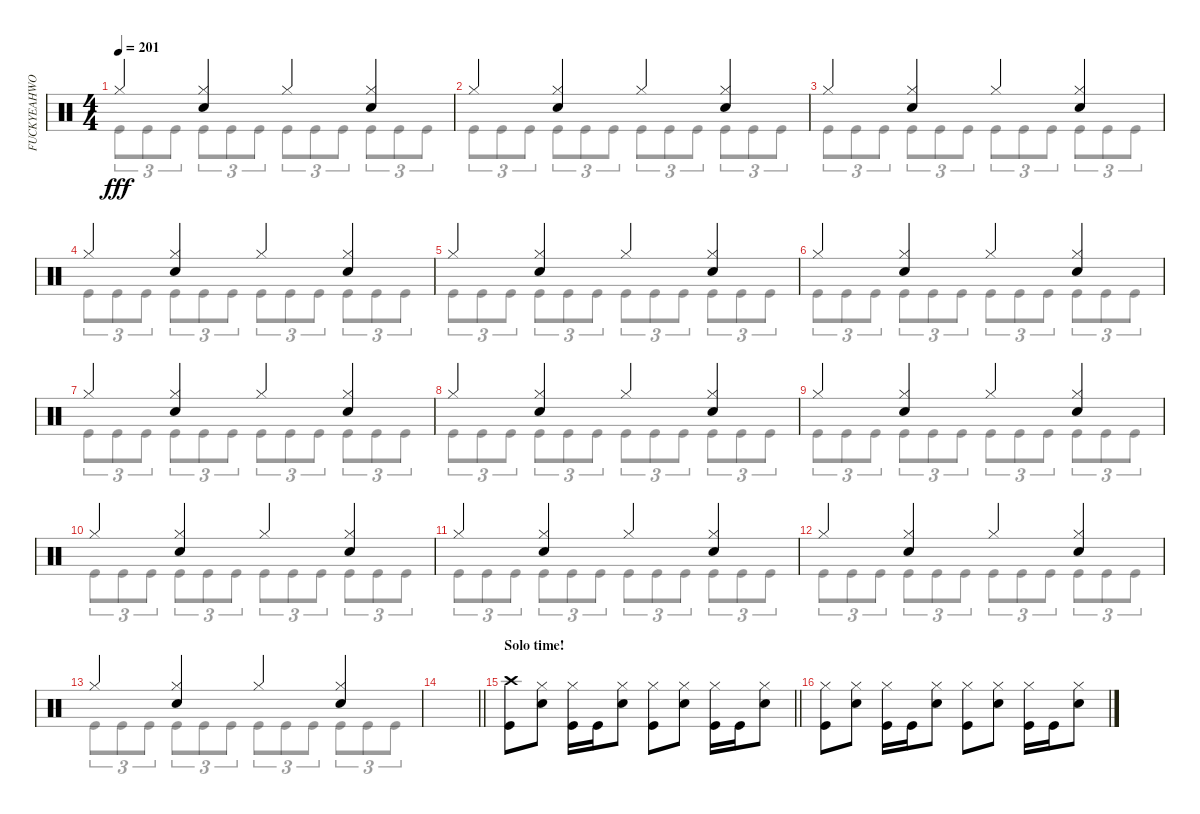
\track ("FUCKYEAHWOOTDAVEMACKINTOSH(Percussion)" "FUCKYEAHWO") {instrument percussion}
\staff {score}
\articulation defaults
\voice
\ts (4 4)
\tempo 201
\clef neutral
\ks c "Hi-Hat (closed)".4{dy fff}
("Hi-Hat (closed)" "Snare (hit) 2").4 "Hi-Hat (closed)".4 ("Hi-Hat (closed)" "Snare (hit) 2").4 |
"Hi-Hat (closed)".4 ("Hi-Hat (closed)" "Snare (hit) 2").4 "Hi-Hat (closed)".4 ("Hi-Hat (closed)" "Snare (hit) 2").4 |
"Hi-Hat (closed)".4 ("Hi-Hat (closed)" "Snare (hit) 2").4 "Hi-Hat (closed)".4 ("Hi-Hat (closed)" "Snare (hit) 2").4 |
"Hi-Hat (closed)".4 ("Hi-Hat (closed)" "Snare (hit) 2").4 "Hi-Hat (closed)".4 ("Hi-Hat (closed)" "Snare (hit) 2").4 |
"Hi-Hat (closed)".4 ("Hi-Hat (closed)" "Snare (hit) 2").4 "Hi-Hat (closed)".4 ("Hi-Hat (closed)" "Snare (hit) 2").4 |
"Hi-Hat (closed)".4 ("Hi-Hat (closed)" "Snare (hit) 2").4 "Hi-Hat (closed)".4 ("Hi-Hat (closed)" "Snare (hit) 2").4 |
"Hi-Hat (closed)".4 ("Hi-Hat (closed)" "Snare (hit) 2").4 "Hi-Hat (closed)".4 ("Hi-Hat (closed)" "Snare (hit) 2").4 |
"Hi-Hat (closed)".4 ("Hi-Hat (closed)" "Snare (hit) 2").4 "Hi-Hat (closed)".4 ("Hi-Hat (closed)" "Snare (hit) 2").4 |
"Hi-Hat (closed)".4 ("Hi-Hat (closed)" "Snare (hit) 2").4 "Hi-Hat (closed)".4 ("Hi-Hat (closed)" "Snare (hit) 2").4 |
"Hi-Hat (closed)".4 ("Hi-Hat (closed)" "Snare (hit) 2").4 "Hi-Hat (closed)".4 ("Hi-Hat (closed)" "Snare (hit) 2").4 |
"Hi-Hat (closed)".4 ("Hi-Hat (closed)" "Snare (hit) 2").4 "Hi-Hat (closed)".4 ("Hi-Hat (closed)" "Snare (hit) 2").4 |
"Hi-Hat (closed)".4 ("Hi-Hat (closed)" "Snare (hit) 2").4 "Hi-Hat (closed)".4 ("Hi-Hat (closed)" "Snare (hit) 2").4 |
"Hi-Hat (closed)".4 ("Hi-Hat (closed)" "Snare (hit) 2").4 "Hi-Hat (closed)".4 ("Hi-Hat (closed)" "Snare (hit) 2").4 |
\barLineRight lightlight
|
\section ("" "Solo time!")
\barLineRight lightlight
("Kick (hit)" "Crash high (hit)").8 ("Snare (hit) 2" "Hi-Hat (closed)").8 ("Kick (hit)" "Hi-Hat (closed)").16 "Kick (hit)".16 ("Snare (hit) 2" "Hi-Hat (closed)").8 ("Kick (hit)" "Hi-Hat (closed)").8 ("Snare (hit) 2" "Hi-Hat (closed)").8 ("Kick (hit)" "Hi-Hat (closed)").16 "Kick (hit)".16 ("Snare (hit) 2" "Hi-Hat (closed)").8 |
("Kick (hit)" "Hi-Hat (closed)").8 ("Snare (hit) 2" "Hi-Hat (closed)").8 ("Kick (hit)" "Hi-Hat (closed)").16 "Kick (hit)".16 ("Snare (hit) 2" "Hi-Hat (closed)").8 ("Kick (hit)" "Hi-Hat (closed)").8 ("Snare (hit) 2" "Hi-Hat (closed)").8 ("Kick (hit)" "Hi-Hat (closed)").16 "Kick (hit)".16 ("Snare (hit) 2" "Hi-Hat (closed)").8
\voice
\clef neutral
\ottava regular
\simile none
\ks c "Kick (hit)".8{tu (3 2) dy fff} "Kick (hit)".8{tu (3 2)} "Kick (hit)".8{tu (3 2)} "Kick (hit)".8{tu (3 2)} "Kick (hit)".8{tu (3 2)} "Kick (hit)".8{tu (3 2)} "Kick (hit)".8{tu (3 2)} "Kick (hit)".8{tu (3 2)} "Kick (hit)".8{tu (3 2)} "Kick (hit)".8{tu (3 2)} "Kick (hit)".8{tu (3 2)} "Kick (hit)".8{tu (3 2)}
|
"Kick (hit)".8{tu (3 2)} "Kick (hit)".8{tu (3 2)} "Kick (hit)".8{tu (3 2)} "Kick (hit)".8{tu (3 2)} "Kick (hit)".8{tu (3 2)} "Kick (hit)".8{tu (3 2)} "Kick (hit)".8{tu (3 2)} "Kick (hit)".8{tu (3 2)} "Kick (hit)".8{tu (3 2)} "Kick (hit)".8{tu (3 2)} "Kick (hit)".8{tu (3 2)} "Kick (hit)".8{tu (3 2)} |
"Kick (hit)".8{tu (3 2)} "Kick (hit)".8{tu (3 2)} "Kick (hit)".8{tu (3 2)} "Kick (hit)".8{tu (3 2)} "Kick (hit)".8{tu (3 2)} "Kick (hit)".8{tu (3 2)} "Kick (hit)".8{tu (3 2)} "Kick (hit)".8{tu (3 2)} "Kick (hit)".8{tu (3 2)} "Kick (hit)".8{tu (3 2)} "Kick (hit)".8{tu (3 2)} "Kick (hit)".8{tu (3 2)} |
"Kick (hit)".8{tu (3 2)} "Kick (hit)".8{tu (3 2)} "Kick (hit)".8{tu (3 2)} "Kick (hit)".8{tu (3 2)} "Kick (hit)".8{tu (3 2)} "Kick (hit)".8{tu (3 2)} "Kick (hit)".8{tu (3 2)} "Kick (hit)".8{tu (3 2)} "Kick (hit)".8{tu (3 2)} "Kick (hit)".8{tu (3 2)} "Kick (hit)".8{tu (3 2)} "Kick (hit)".8{tu (3 2)} |
"Kick (hit)".8{tu (3 2)} "Kick (hit)".8{tu (3 2)} "Kick (hit)".8{tu (3 2)} "Kick (hit)".8{tu (3 2)} "Kick (hit)".8{tu (3 2)} "Kick (hit)".8{tu (3 2)} "Kick (hit)".8{tu (3 2)} "Kick (hit)".8{tu (3 2)} "Kick (hit)".8{tu (3 2)} "Kick (hit)".8{tu (3 2)} "Kick (hit)".8{tu (3 2)} "Kick (hit)".8{tu (3 2)} |
"Kick (hit)".8{tu (3 2)} "Kick (hit)".8{tu (3 2)} "Kick (hit)".8{tu (3 2)} "Kick (hit)".8{tu (3 2)} "Kick (hit)".8{tu (3 2)} "Kick (hit)".8{tu (3 2)} "Kick (hit)".8{tu (3 2)} "Kick (hit)".8{tu (3 2)} "Kick (hit)".8{tu (3 2)} "Kick (hit)".8{tu (3 2)} "Kick (hit)".8{tu (3 2)} "Kick (hit)".8{tu (3 2)} |
"Kick (hit)".8{tu (3 2)} "Kick (hit)".8{tu (3 2)} "Kick (hit)".8{tu (3 2)} "Kick (hit)".8{tu (3 2)} "Kick (hit)".8{tu (3 2)} "Kick (hit)".8{tu (3 2)} "Kick (hit)".8{tu (3 2)} "Kick (hit)".8{tu (3 2)} "Kick (hit)".8{tu (3 2)} "Kick (hit)".8{tu (3 2)} "Kick (hit)".8{tu (3 2)} "Kick (hit)".8{tu (3 2)} |
"Kick (hit)".8{tu (3 2)} "Kick (hit)".8{tu (3 2)} "Kick (hit)".8{tu (3 2)} "Kick (hit)".8{tu (3 2)} "Kick (hit)".8{tu (3 2)} "Kick (hit)".8{tu (3 2)} "Kick (hit)".8{tu (3 2)} "Kick (hit)".8{tu (3 2)} "Kick (hit)".8{tu (3 2)} "Kick (hit)".8{tu (3 2)} "Kick (hit)".8{tu (3 2)} "Kick (hit)".8{tu (3 2)} |
"Kick (hit)".8{tu (3 2)} "Kick (hit)".8{tu (3 2)} "Kick (hit)".8{tu (3 2)} "Kick (hit)".8{tu (3 2)} "Kick (hit)".8{tu (3 2)} "Kick (hit)".8{tu (3 2)} "Kick (hit)".8{tu (3 2)} "Kick (hit)".8{tu (3 2)} "Kick (hit)".8{tu (3 2)} "Kick (hit)".8{tu (3 2)} "Kick (hit)".8{tu (3 2)} "Kick (hit)".8{tu (3 2)} |
"Kick (hit)".8{tu (3 2)} "Kick (hit)".8{tu (3 2)} "Kick (hit)".8{tu (3 2)} "Kick (hit)".8{tu (3 2)} "Kick (hit)".8{tu (3 2)} "Kick (hit)".8{tu (3 2)} "Kick (hit)".8{tu (3 2)} "Kick (hit)".8{tu (3 2)} "Kick (hit)".8{tu (3 2)} "Kick (hit)".8{tu (3 2)} "Kick (hit)".8{tu (3 2)} "Kick (hit)".8{tu (3 2)} |
"Kick (hit)".8{tu (3 2)} "Kick (hit)".8{tu (3 2)} "Kick (hit)".8{tu (3 2)} "Kick (hit)".8{tu (3 2)} "Kick (hit)".8{tu (3 2)} "Kick (hit)".8{tu (3 2)} "Kick (hit)".8{tu (3 2)} "Kick (hit)".8{tu (3 2)} "Kick (hit)".8{tu (3 2)} "Kick (hit)".8{tu (3 2)} "Kick (hit)".8{tu (3 2)} "Kick (hit)".8{tu (3 2)} |
"Kick (hit)".8{tu (3 2)} "Kick (hit)".8{tu (3 2)} "Kick (hit)".8{tu (3 2)} "Kick (hit)".8{tu (3 2)} "Kick (hit)".8{tu (3 2)} "Kick (hit)".8{tu (3 2)} "Kick (hit)".8{tu (3 2)} "Kick (hit)".8{tu (3 2)} "Kick (hit)".8{tu (3 2)} "Kick (hit)".8{tu (3 2)} "Kick (hit)".8{tu (3 2)} "Kick (hit)".8{tu (3 2)} |
"Kick (hit)".8{tu (3 2)} "Kick (hit)".8{tu (3 2)} "Kick (hit)".8{tu (3 2)} "Kick (hit)".8{tu (3 2)} "Kick (hit)".8{tu (3 2)} "Kick (hit)".8{tu (3 2)} "Kick (hit)".8{tu (3 2)} "Kick (hit)".8{tu (3 2)} "Kick (hit)".8{tu (3 2)} "Kick (hit)".8{tu (3 2)} "Kick (hit)".8{tu (3 2)} "Kick (hit)".8{tu (3 2)} |
\barLineRight lightlight
|
\barLineRight lightlight
|
